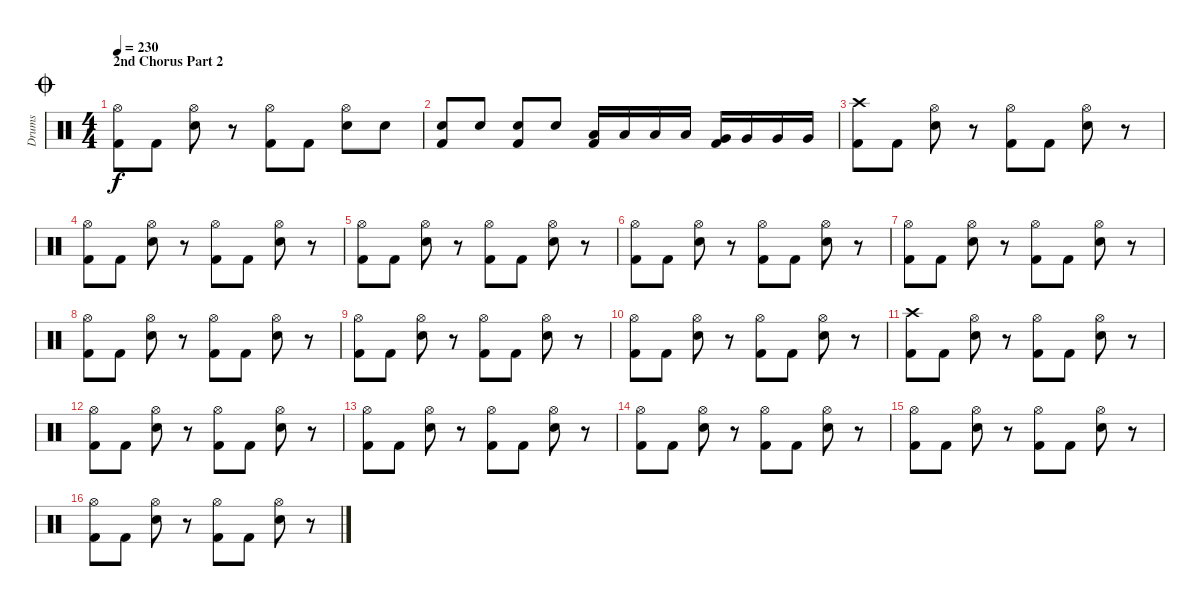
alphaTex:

\track ("Drums" "Drums") {instrument percussion}
\staff {score}
\articulation defaults
\ts (4 4)
\section ("" "2nd Chorus Part 2")
\jump coda
\tempo 230
\clef neutral
\ks c
("Hi-Hat (open)" "Kick (hit) 2").8{dy f} "Kick (hit) 2".8 ("Hi-Hat (open)" "Electric Snare (hit)").8 r.8 ("Hi-Hat (open)" "Kick (hit) 2").8 "Kick (hit) 2".8 ("Hi-Hat (open)" "Electric Snare (hit)").8 "Electric Snare (hit)".8 |
("Electric Snare (hit)" "Kick (hit) 2").8 "Electric Snare (hit)".8 ("Electric Snare (hit)" "Kick (hit) 2").8 "Electric Snare (hit)".8 ("Low Tom (hit)" "Kick (hit) 2").16 "Low Tom (hit)".16 "Low Tom (hit)".16 "Low Tom (hit)".16 ("Very Low Tom (hit)" "Kick (hit) 2").16 "Very Low Tom (hit)".16 "Very Low Tom (hit)".16 "Very Low Tom (hit)".16 |
("Crash high (hit)" "Kick (hit) 2").8 "Kick (hit) 2".8 ("Hi-Hat (open)" "Electric Snare (hit)").8 r.8 ("Hi-Hat (open)" "Kick (hit) 2").8 "Kick (hit) 2".8 ("Hi-Hat (open)" "Electric Snare (hit)").8 r.8 |
("Hi-Hat (open)" "Kick (hit) 2").8 "Kick (hit) 2".8 ("Hi-Hat (open)" "Electric Snare (hit)").8 r.8 ("Hi-Hat (open)" "Kick (hit) 2").8 "Kick (hit) 2".8 ("Hi-Hat (open)" "Electric Snare (hit)").8 r.8 |
("Hi-Hat (open)" "Kick (hit) 2").8 "Kick (hit) 2".8 ("Hi-Hat (open)" "Electric Snare (hit)").8 r.8 ("Hi-Hat (open)" "Kick (hit) 2").8 "Kick (hit) 2".8 ("Hi-Hat (open)" "Electric Snare (hit)").8 r.8 |
("Hi-Hat (open)" "Kick (hit) 2").8 "Kick (hit) 2".8 ("Hi-Hat (open)" "Electric Snare (hit)").8 r.8 ("Hi-Hat (open)" "Kick (hit) 2").8 "Kick (hit) 2".8 ("Hi-Hat (open)" "Electric Snare (hit)").8 r.8 |
("Hi-Hat (open)" "Kick (hit) 2").8 "Kick (hit) 2".8 ("Hi-Hat (open)" "Electric Snare (hit)").8 r.8 ("Hi-Hat (open)" "Kick (hit) 2").8 "Kick (hit) 2".8 ("Hi-Hat (open)" "Electric Snare (hit)").8 r.8 |
("Hi-Hat (open)" "Kick (hit) 2").8 "Kick (hit) 2".8 ("Hi-Hat (open)" "Electric Snare (hit)").8 r.8 ("Hi-Hat (open)" "Kick (hit) 2").8 "Kick (hit) 2".8 ("Hi-Hat (open)" "Electric Snare (hit)").8 r.8 |
("Hi-Hat (open)" "Kick (hit) 2").8 "Kick (hit) 2".8 ("Hi-Hat (open)" "Electric Snare (hit)").8 r.8 ("Hi-Hat (open)" "Kick (hit) 2").8 "Kick (hit) 2".8 ("Hi-Hat (open)" "Electric Snare (hit)").8 r.8 |
("Hi-Hat (open)" "Kick (hit) 2").8 "Kick (hit) 2".8 ("Hi-Hat (open)" "Electric Snare (hit)").8 r.8 ("Hi-Hat (open)" "Kick (hit) 2").8 "Kick (hit) 2".8 ("Hi-Hat (open)" "Electric Snare (hit)").8 r.8 |
("Crash high (hit)" "Kick (hit) 2").8 "Kick (hit) 2".8 ("Hi-Hat (open)" "Electric Snare (hit)").8 r.8 ("Hi-Hat (open)" "Kick (hit) 2").8 "Kick (hit) 2".8 ("Hi-Hat (open)" "Electric Snare (hit)").8 r.8 |
("Hi-Hat (open)" "Kick (hit) 2").8 "Kick (hit) 2".8 ("Hi-Hat (open)" "Electric Snare (hit)").8 r.8 ("Hi-Hat (open)" "Kick (hit) 2").8 "Kick (hit) 2".8 ("Hi-Hat (open)" "Electric Snare (hit)").8 r.8 |
("Hi-Hat (open)" "Kick (hit) 2").8 "Kick (hit) 2".8 ("Hi-Hat (open)" "Electric Snare (hit)").8 r.8 ("Hi-Hat (open)" "Kick (hit) 2").8 "Kick (hit) 2".8 ("Hi-Hat (open)" "Electric Snare (hit)").8 r.8 |
("Hi-Hat (open)" "Kick (hit) 2").8 "Kick (hit) 2".8 ("Hi-Hat (open)" "Electric Snare (hit)").8 r.8 ("Hi-Hat (open)" "Kick (hit) 2").8 "Kick (hit) 2".8 ("Hi-Hat (open)" "Electric Snare (hit)").8 r.8 |
("Hi-Hat (open)" "Kick (hit) 2").8 "Kick (hit) 2".8 ("Hi-Hat (open)" "Electric Snare (hit)").8 r.8 ("Hi-Hat (open)" "Kick (hit) 2").8 "Kick (hit) 2".8 ("Hi-Hat (open)" "Electric Snare (hit)").8 r.8 |
("Hi-Hat (open)" "Kick (hit) 2").8 "Kick (hit) 2".8 ("Hi-Hat (open)" "Electric Snare (hit)").8 r.8 ("Hi-Hat (open)" "Kick (hit) 2").8 "Kick (hit) 2".8 ("Hi-Hat (open)" "Electric Snare (hit)").8 r.8
